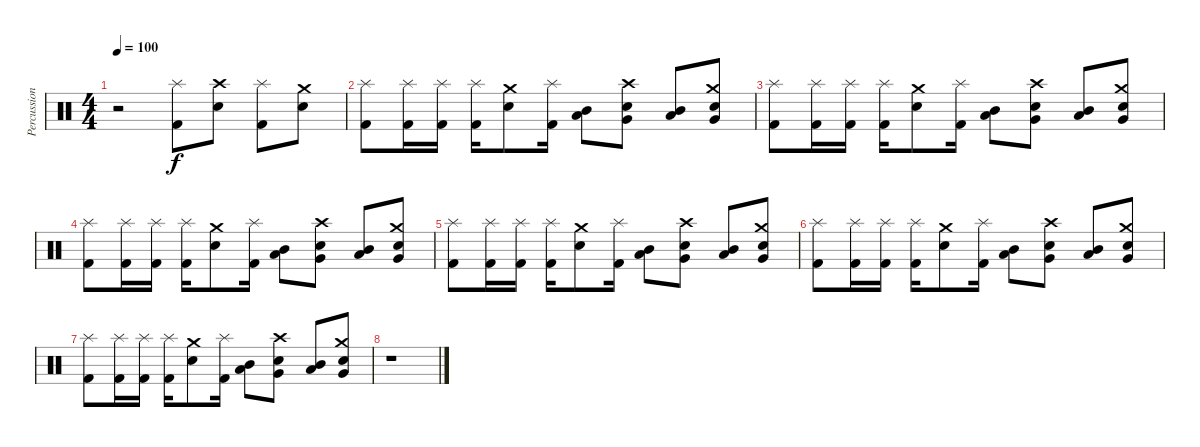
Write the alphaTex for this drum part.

\track ("Percussions" "Percussion") {instrument percussion}
\staff {score}
\articulation defaults
\ts (4 4)
\tempo 100
\clef neutral
\ks c
r.2{dy f} ("Splash (hit)" "Kick (hit) 2").8 ("Crash high (hit)" "Snare (hit) 2").8 ("Splash (hit)" "Kick (hit) 2").8 ("Crash medium (hit)" "Snare (hit) 2").8 |
("Splash (hit)" "Kick (hit) 2").8 ("Splash (hit)" "Kick (hit) 2").16 ("Splash (hit)" "Kick (hit) 2").16 ("Splash (hit)" "Kick (hit) 2").16 ("Crash medium (hit)" "Snare (hit) 2").8 ("Splash (hit)" "Kick (hit) 2").16 ("Mid Tom (hit)" "Low Tom (hit)").8 ("Crash high (hit)" "Very Low Tom (hit)" "Snare (hit) 2").8 ("Mid Tom (hit)" "Low Tom (hit)").8 ("Crash medium (hit)" "Very Low Tom (hit)" "Snare (hit) 2").8 |
("Splash (hit)" "Kick (hit) 2").8 ("Splash (hit)" "Kick (hit) 2").16 ("Splash (hit)" "Kick (hit) 2").16 ("Splash (hit)" "Kick (hit) 2").16 ("Crash medium (hit)" "Snare (hit) 2").8 ("Splash (hit)" "Kick (hit) 2").16 ("Mid Tom (hit)" "Low Tom (hit)").8 ("Crash high (hit)" "Very Low Tom (hit)" "Snare (hit) 2").8 ("Mid Tom (hit)" "Low Tom (hit)").8 ("Crash medium (hit)" "Very Low Tom (hit)" "Snare (hit) 2").8 |
("Splash (hit)" "Kick (hit) 2").8 ("Splash (hit)" "Kick (hit) 2").16 ("Splash (hit)" "Kick (hit) 2").16 ("Splash (hit)" "Kick (hit) 2").16 ("Crash medium (hit)" "Snare (hit) 2").8 ("Splash (hit)" "Kick (hit) 2").16 ("Mid Tom (hit)" "Low Tom (hit)").8 ("Crash high (hit)" "Very Low Tom (hit)" "Snare (hit) 2").8 ("Mid Tom (hit)" "Low Tom (hit)").8 ("Crash medium (hit)" "Very Low Tom (hit)" "Snare (hit) 2").8 |
("Splash (hit)" "Kick (hit) 2").8 ("Splash (hit)" "Kick (hit) 2").16 ("Splash (hit)" "Kick (hit) 2").16 ("Splash (hit)" "Kick (hit) 2").16 ("Crash medium (hit)" "Snare (hit) 2").8 ("Splash (hit)" "Kick (hit) 2").16 ("Mid Tom (hit)" "Low Tom (hit)").8 ("Crash high (hit)" "Very Low Tom (hit)" "Snare (hit) 2").8 ("Mid Tom (hit)" "Low Tom (hit)").8 ("Crash medium (hit)" "Very Low Tom (hit)" "Snare (hit) 2").8 |
("Splash (hit)" "Kick (hit) 2").8 ("Splash (hit)" "Kick (hit) 2").16 ("Splash (hit)" "Kick (hit) 2").16 ("Splash (hit)" "Kick (hit) 2").16 ("Crash medium (hit)" "Snare (hit) 2").8 ("Splash (hit)" "Kick (hit) 2").16 ("Mid Tom (hit)" "Low Tom (hit)").8 ("Crash high (hit)" "Very Low Tom (hit)" "Snare (hit) 2").8 ("Mid Tom (hit)" "Low Tom (hit)").8 ("Crash medium (hit)" "Very Low Tom (hit)" "Snare (hit) 2").8 |
("Splash (hit)" "Kick (hit) 2").8 ("Splash (hit)" "Kick (hit) 2").16 ("Splash (hit)" "Kick (hit) 2").16 ("Splash (hit)" "Kick (hit) 2").16 ("Crash medium (hit)" "Snare (hit) 2").8 ("Splash (hit)" "Kick (hit) 2").16 ("Mid Tom (hit)" "Low Tom (hit)").8 ("Crash high (hit)" "Very Low Tom (hit)" "Snare (hit) 2").8 ("Mid Tom (hit)" "Low Tom (hit)").8 ("Crash medium (hit)" "Very Low Tom (hit)" "Snare (hit) 2").8 |
r.1
